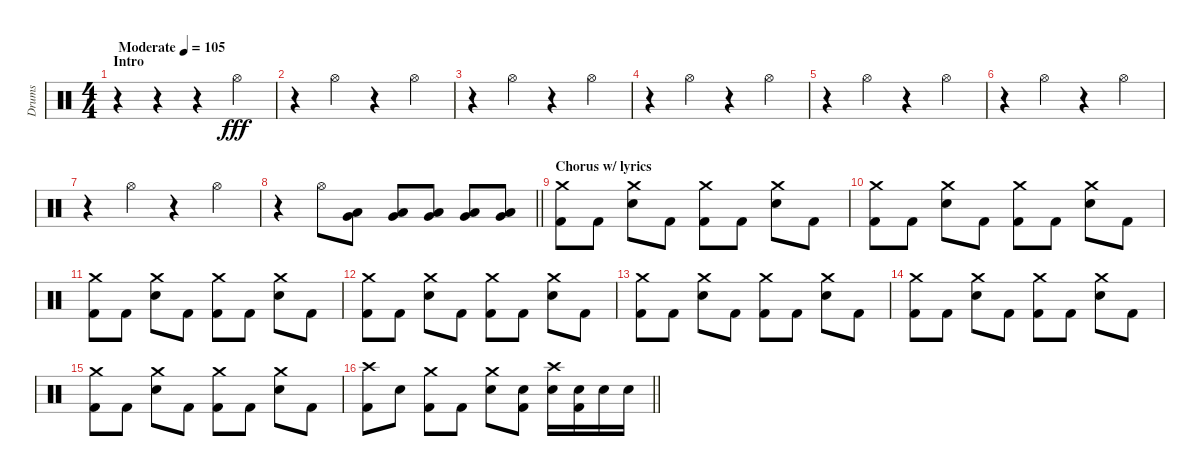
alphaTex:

\track ("Drums" "Drums") {instrument percussion}
\staff {score}
\articulation defaults
\ts (4 4)
\section ("" "Intro")
\tempo (105 "Moderate")
\clef neutral
\ks c
r.4{dy fff volume 16} r.4 r.4 "Hi-Hat (open)".4 |
r.4 "Hi-Hat (open)".4 r.4 "Hi-Hat (open)".4 |
r.4 "Hi-Hat (open)".4 r.4 "Hi-Hat (open)".4 |
r.4 "Hi-Hat (open)".4 r.4 "Hi-Hat (open)".4 |
r.4 "Hi-Hat (open)".4 r.4 "Hi-Hat (open)".4 |
r.4 "Hi-Hat (open)".4 r.4 "Hi-Hat (open)".4 |
r.4 "Hi-Hat (open)".4 r.4 "Hi-Hat (open)".4 |
\barLineRight lightlight
r.4 "Hi-Hat (open)".8 ("Low Tom (hit)" "Very Low Tom (hit)").8 ("Low Tom (hit)" "Very Low Tom (hit)").8 ("Low Tom (hit)" "Very Low Tom (hit)").8 ("Very Low Tom (hit)" "Low Floor Tom (hit)").8 ("Very Low Tom (hit)" "Low Floor Tom (hit)").8 |
\section ("" "Chorus w/ lyrics")
("Crash medium (hit)" "Kick (hit) 2").8{volume 16} "Kick (hit) 2".8 ("Crash medium (hit)" "Electric Snare (hit)").8 "Kick (hit) 2".8 ("Crash medium (hit)" "Kick (hit) 2").8 "Kick (hit) 2".8 ("Crash medium (hit)" "Electric Snare (hit)").8 "Kick (hit) 2".8 |
("Crash medium (hit)" "Kick (hit) 2").8 "Kick (hit) 2".8 ("Crash medium (hit)" "Electric Snare (hit)").8 "Kick (hit) 2".8 ("Crash medium (hit)" "Kick (hit) 2").8 "Kick (hit) 2".8 ("Crash medium (hit)" "Electric Snare (hit)").8 "Kick (hit) 2".8 |
("Crash medium (hit)" "Kick (hit) 2").8 "Kick (hit) 2".8 ("Crash medium (hit)" "Electric Snare (hit)").8 "Kick (hit) 2".8 ("Crash medium (hit)" "Kick (hit) 2").8 "Kick (hit) 2".8 ("Crash medium (hit)" "Electric Snare (hit)").8 "Kick (hit) 2".8 |
("Crash medium (hit)" "Kick (hit) 2").8 "Kick (hit) 2".8 ("Crash medium (hit)" "Electric Snare (hit)").8 "Kick (hit) 2".8 ("Crash medium (hit)" "Kick (hit) 2").8 "Kick (hit) 2".8 ("Crash medium (hit)" "Electric Snare (hit)").8 "Kick (hit) 2".8 |
("Crash medium (hit)" "Kick (hit) 2").8 "Kick (hit) 2".8 ("Crash medium (hit)" "Electric Snare (hit)").8 "Kick (hit) 2".8 ("Crash medium (hit)" "Kick (hit) 2").8 "Kick (hit) 2".8 ("Crash medium (hit)" "Electric Snare (hit)").8 "Kick (hit) 2".8 |
("Crash medium (hit)" "Kick (hit) 2").8 "Kick (hit) 2".8 ("Crash medium (hit)" "Electric Snare (hit)").8 "Kick (hit) 2".8 ("Crash medium (hit)" "Kick (hit) 2").8 "Kick (hit) 2".8 ("Crash medium (hit)" "Electric Snare (hit)").8 "Kick (hit) 2".8 |
("Crash medium (hit)" "Kick (hit) 2").8 "Kick (hit) 2".8 ("Crash medium (hit)" "Electric Snare (hit)").8 "Kick (hit) 2".8 ("Crash medium (hit)" "Kick (hit) 2").8 "Kick (hit) 2".8 ("Crash medium (hit)" "Electric Snare (hit)").8 "Kick (hit) 2".8 |
\barLineRight lightlight
("Crash high (hit)" "Kick (hit) 2").8 "Electric Snare (hit)".8 ("Crash medium (hit)" "Kick (hit) 2").8 "Kick (hit) 2".8 ("Crash medium (hit)" "Electric Snare (hit)").8 ("Electric Snare (hit)" "Kick (hit) 2").8 ("Crash high (hit)" "Electric Snare (hit)").16 ("Electric Snare (hit)" "Kick (hit) 2").16 "Electric Snare (hit)".16 "Electric Snare (hit)".16
